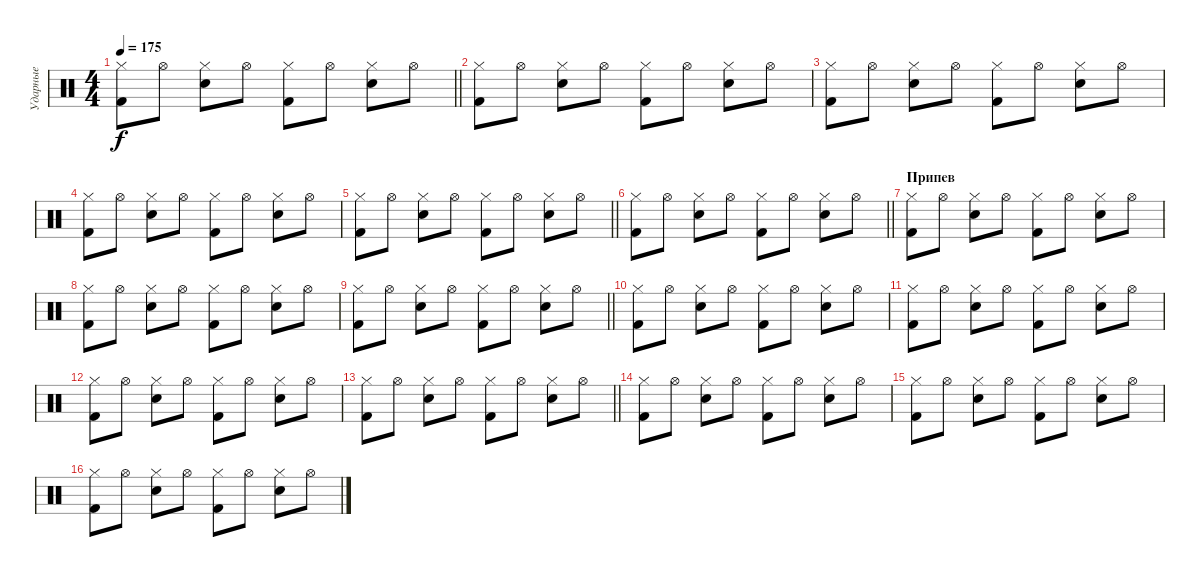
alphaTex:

\track ("Ударные" "Ударные") {instrument percussion}
\staff {score}
\articulation defaults
\ts (4 4)
\tempo 175
\clef neutral
\barLineRight lightlight
\ks c
("Hi-Hat (closed)" "Kick (hit) 2").8{dy f} "Hi-Hat (open)".8 ("Hi-Hat (closed)" "Electric Snare (hit)").8 "Hi-Hat (open)".8 ("Hi-Hat (closed)" "Kick (hit) 2").8 "Hi-Hat (open)".8 ("Hi-Hat (closed)" "Electric Snare (hit)").8 "Hi-Hat (open)".8 |
("Hi-Hat (closed)" "Kick (hit) 2").8 "Hi-Hat (open)".8 ("Hi-Hat (closed)" "Electric Snare (hit)").8 "Hi-Hat (open)".8 ("Hi-Hat (closed)" "Kick (hit) 2").8 "Hi-Hat (open)".8 ("Hi-Hat (closed)" "Electric Snare (hit)").8 "Hi-Hat (open)".8 |
("Hi-Hat (closed)" "Kick (hit) 2").8 "Hi-Hat (open)".8 ("Hi-Hat (closed)" "Electric Snare (hit)").8 "Hi-Hat (open)".8 ("Hi-Hat (closed)" "Kick (hit) 2").8 "Hi-Hat (open)".8 ("Hi-Hat (closed)" "Electric Snare (hit)").8 "Hi-Hat (open)".8 |
("Hi-Hat (closed)" "Kick (hit) 2").8 "Hi-Hat (open)".8 ("Hi-Hat (closed)" "Electric Snare (hit)").8 "Hi-Hat (open)".8 ("Hi-Hat (closed)" "Kick (hit) 2").8 "Hi-Hat (open)".8 ("Hi-Hat (closed)" "Electric Snare (hit)").8 "Hi-Hat (open)".8 |
\barLineRight lightlight
("Hi-Hat (closed)" "Kick (hit) 2").8 "Hi-Hat (open)".8 ("Hi-Hat (closed)" "Electric Snare (hit)").8 "Hi-Hat (open)".8 ("Hi-Hat (closed)" "Kick (hit) 2").8 "Hi-Hat (open)".8 ("Hi-Hat (closed)" "Electric Snare (hit)").8 "Hi-Hat (open)".8 |
\barLineRight lightlight
("Hi-Hat (closed)" "Kick (hit) 2").8 "Hi-Hat (open)".8 ("Hi-Hat (closed)" "Electric Snare (hit)").8 "Hi-Hat (open)".8 ("Hi-Hat (closed)" "Kick (hit) 2").8 "Hi-Hat (open)".8 ("Hi-Hat (closed)" "Electric Snare (hit)").8 "Hi-Hat (open)".8 |
\section ("" "Припев")
("Hi-Hat (closed)" "Kick (hit) 2").8 "Hi-Hat (open)".8 ("Hi-Hat (closed)" "Electric Snare (hit)").8 "Hi-Hat (open)".8 ("Hi-Hat (closed)" "Kick (hit) 2").8 "Hi-Hat (open)".8 ("Hi-Hat (closed)" "Electric Snare (hit)").8 "Hi-Hat (open)".8 |
("Hi-Hat (closed)" "Kick (hit) 2").8 "Hi-Hat (open)".8 ("Hi-Hat (closed)" "Electric Snare (hit)").8 "Hi-Hat (open)".8 ("Hi-Hat (closed)" "Kick (hit) 2").8 "Hi-Hat (open)".8 ("Hi-Hat (closed)" "Electric Snare (hit)").8 "Hi-Hat (open)".8 |
\barLineRight lightlight
("Hi-Hat (closed)" "Kick (hit) 2").8 "Hi-Hat (open)".8 ("Hi-Hat (closed)" "Electric Snare (hit)").8 "Hi-Hat (open)".8 ("Hi-Hat (closed)" "Kick (hit) 2").8 "Hi-Hat (open)".8 ("Hi-Hat (closed)" "Electric Snare (hit)").8 "Hi-Hat (open)".8 |
("Hi-Hat (closed)" "Kick (hit) 2").8 "Hi-Hat (open)".8 ("Hi-Hat (closed)" "Electric Snare (hit)").8 "Hi-Hat (open)".8 ("Hi-Hat (closed)" "Kick (hit) 2").8 "Hi-Hat (open)".8 ("Hi-Hat (closed)" "Electric Snare (hit)").8 "Hi-Hat (open)".8 |
("Hi-Hat (closed)" "Kick (hit) 2").8 "Hi-Hat (open)".8 ("Hi-Hat (closed)" "Electric Snare (hit)").8 "Hi-Hat (open)".8 ("Hi-Hat (closed)" "Kick (hit) 2").8 "Hi-Hat (open)".8 ("Hi-Hat (closed)" "Electric Snare (hit)").8 "Hi-Hat (open)".8 |
("Hi-Hat (closed)" "Kick (hit) 2").8 "Hi-Hat (open)".8 ("Hi-Hat (closed)" "Electric Snare (hit)").8 "Hi-Hat (open)".8 ("Hi-Hat (closed)" "Kick (hit) 2").8 "Hi-Hat (open)".8 ("Hi-Hat (closed)" "Electric Snare (hit)").8 "Hi-Hat (open)".8 |
\barLineRight lightlight
("Hi-Hat (closed)" "Kick (hit) 2").8 "Hi-Hat (open)".8 ("Hi-Hat (closed)" "Electric Snare (hit)").8 "Hi-Hat (open)".8 ("Hi-Hat (closed)" "Kick (hit) 2").8 "Hi-Hat (open)".8 ("Hi-Hat (closed)" "Electric Snare (hit)").8 "Hi-Hat (open)".8 |
("Hi-Hat (closed)" "Kick (hit) 2").8 "Hi-Hat (open)".8 ("Hi-Hat (closed)" "Electric Snare (hit)").8 "Hi-Hat (open)".8 ("Hi-Hat (closed)" "Kick (hit) 2").8 "Hi-Hat (open)".8 ("Hi-Hat (closed)" "Electric Snare (hit)").8 "Hi-Hat (open)".8 |
("Hi-Hat (closed)" "Kick (hit) 2").8 "Hi-Hat (open)".8 ("Hi-Hat (closed)" "Electric Snare (hit)").8 "Hi-Hat (open)".8 ("Hi-Hat (closed)" "Kick (hit) 2").8 "Hi-Hat (open)".8 ("Hi-Hat (closed)" "Electric Snare (hit)").8 "Hi-Hat (open)".8 |
("Hi-Hat (closed)" "Kick (hit) 2").8 "Hi-Hat (open)".8 ("Hi-Hat (closed)" "Electric Snare (hit)").8 "Hi-Hat (open)".8 ("Hi-Hat (closed)" "Kick (hit) 2").8 "Hi-Hat (open)".8 ("Hi-Hat (closed)" "Electric Snare (hit)").8 "Hi-Hat (open)".8
